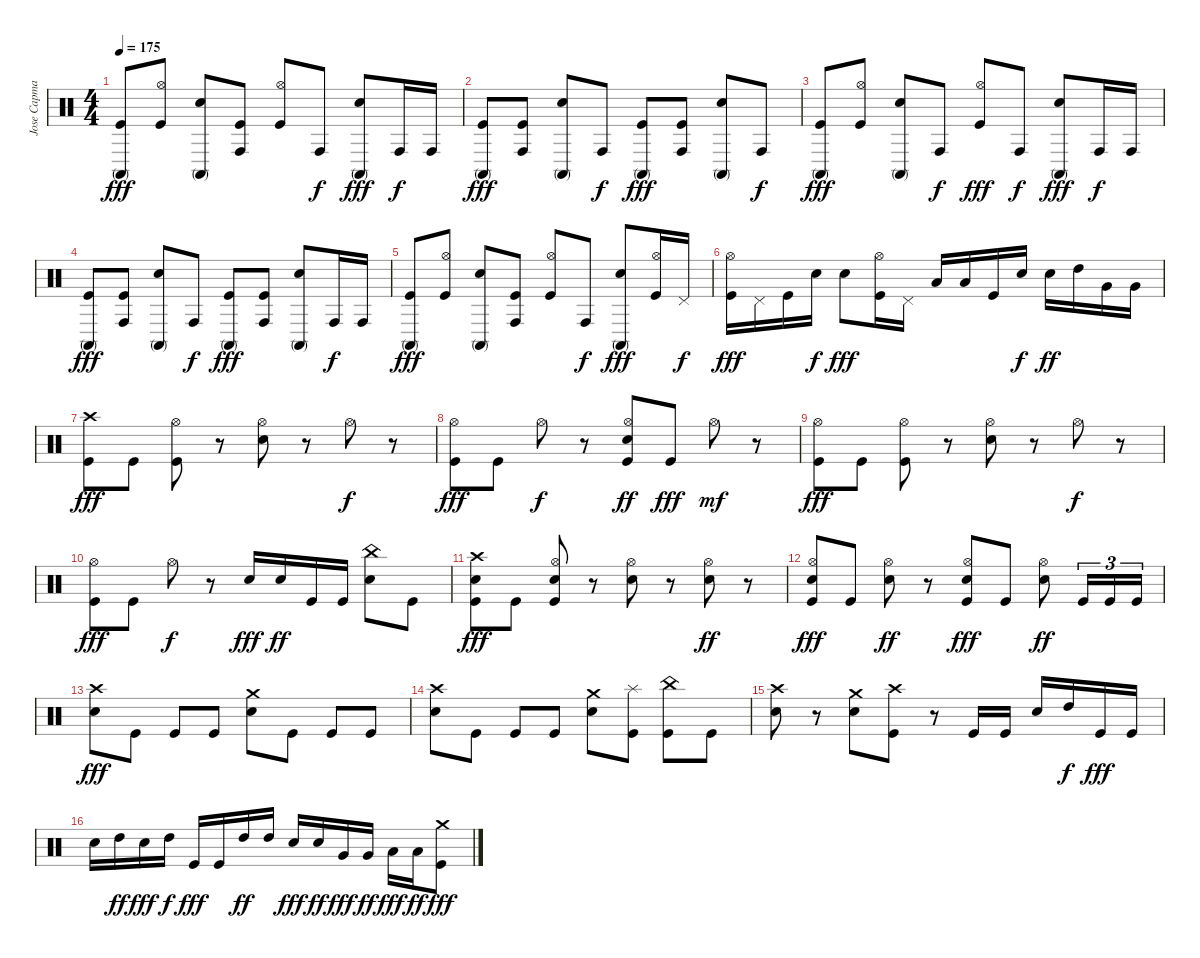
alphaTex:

\track ("Jose Capmany" "Jose Capma") {instrument percussion}
\staff {score}
\articulation defaults
\ts (4 4)
\tempo 175
\clef neutral
\ks c
("Conga high (mute)" "Kick (hit)").8{dy fff} ("Hi-Hat (open)" "Kick (hit)").8 ("Conga high (mute)" "Snare (hit) 2").8 ("Conga high (hit)" "Kick (hit)").8 ("Hi-Hat (open)" "Kick (hit)").8 "Conga high (hit)".8{dy f} ("Conga high (mute)" "Snare (hit) 2").8{dy fff} "Conga high (hit)".16{dy f} "Conga high (hit)".16 |
("Conga high (mute)" "Kick (hit)").8{dy fff} ("Conga high (hit)" "Kick (hit)").8 ("Conga high (mute)" "Snare (hit) 2").8 "Conga high (hit)".8{dy f} ("Conga high (mute)" "Kick (hit)").8{dy fff} ("Conga high (hit)" "Kick (hit)").8 ("Conga high (mute)" "Snare (hit) 2").8 "Conga high (hit)".8{dy f} |
("Conga high (mute)" "Kick (hit)").8{dy fff} ("Hi-Hat (open)" "Kick (hit)").8 ("Conga high (mute)" "Snare (hit) 2").8 "Conga high (hit)".8{dy f} ("Hi-Hat (open)" "Kick (hit)").8{dy fff} "Conga high (hit)".8{dy f} ("Conga high (mute)" "Snare (hit) 2").8{dy fff} "Conga high (hit)".16{dy f} "Conga high (hit)".16 |
("Conga high (mute)" "Kick (hit)").8{dy fff} ("Conga high (hit)" "Kick (hit)").8 ("Conga high (mute)" "Snare (hit) 2").8 "Conga high (hit)".8{dy f} ("Conga high (mute)" "Kick (hit)").8{dy fff} ("Conga high (hit)" "Kick (hit)").8 ("Conga high (mute)" "Snare (hit) 2").8 "Conga high (hit)".16{dy f} "Conga high (hit)".16 |
("Conga high (mute)" "Kick (hit)").8{dy fff} ("Hi-Hat (open)" "Kick (hit)").8 ("Conga high (mute)" "Snare (hit) 2").8 ("Conga high (hit)" "Kick (hit)").8 ("Hi-Hat (open)" "Kick (hit)").8 "Conga high (hit)".8{dy f} ("Conga high (mute)" "Snare (hit) 2").8{dy fff} ("Hi-Hat (open)" "Kick (hit)").16 "Pedal Hi-Hat (hit)".16{dy f} |
("Hi-Hat (open)" "Kick (hit)").16{dy fff} "Pedal Hi-Hat (hit)".16 "Kick (hit)".16 "Snare (hit) 2".16{dy f} "Snare (hit) 2".8{dy fff} ("Hi-Hat (open)" "Kick (hit)").16 "Pedal Hi-Hat (hit)".16 "Low Floor Tom (hit)".16 "Low Floor Tom (hit)".16 "Kick (hit)".16 "Snare (hit) 2".16{dy f} "Snare (hit) 2".16{dy ff} "High Tom (hit)".16 "Very Low Tom (hit)".16 "Very Low Tom (hit)".16 |
("Crash high (hit)" "Kick (hit)").8{dy fff} "Kick (hit)".8 ("Hi-Hat (open)" "Kick (hit)").8 r.8 ("Hi-Hat (open)" "Snare (hit) 2").8 r.8 "Hi-Hat (open)".8{dy f} r.8 |
("Hi-Hat (open)" "Kick (hit)").8{dy fff} "Kick (hit)".8 "Hi-Hat (open)".8{dy f} r.8 ("Hi-Hat (open)" "Snare (hit) 2" "Kick (hit)").8{dy ff} "Kick (hit)".8{dy fff} "Hi-Hat (open)".8{dy mf} r.8 |
("Hi-Hat (open)" "Kick (hit)").8{dy fff} "Kick (hit)".8 ("Hi-Hat (open)" "Kick (hit)").8 r.8 ("Hi-Hat (open)" "Snare (hit) 2").8 r.8 "Hi-Hat (open)".8{dy f} r.8 |
("Hi-Hat (open)" "Kick (hit)").8{dy fff} "Kick (hit)".8 "Hi-Hat (open)".8{dy f} r.8 "Snare (hit) 2".16{dy fff} "Snare (hit) 2".16{dy ff} "Kick (hit)".16 "Kick (hit)".16 ("China (hit)" "Snare (hit) 2").8 "Kick (hit)".8 |
("Crash high (hit)" "Snare (hit) 2" "Kick (hit)").8{dy fff} "Kick (hit)".8 ("Hi-Hat (open)" "Snare (hit) 2" "Kick (hit)").8 r.8 ("Hi-Hat (open)" "Snare (hit) 2").8 r.8 ("Hi-Hat (open)" "Snare (hit) 2").8{dy ff} r.8 |
("Hi-Hat (open)" "Snare (hit) 2" "Kick (hit)").8{dy fff} "Kick (hit)".8 ("Hi-Hat (open)" "Snare (hit) 2").8{dy ff} r.8 ("Hi-Hat (open)" "Snare (hit) 2" "Kick (hit)").8{dy fff} "Kick (hit)".8 ("Hi-Hat (open)" "Snare (hit) 2").8{dy ff} "Kick (hit)".16{tu (3 2)} "Kick (hit)".16{tu (3 2)} "Kick (hit)".16{tu (3 2)} |
("Crash high (hit)" "Snare (hit) 2").8{dy fff} "Kick (hit)".8 "Kick (hit)".8 "Kick (hit)".8 ("Crash medium (hit)" "Snare (hit) 2").8 "Kick (hit)".8 "Kick (hit)".8 "Kick (hit)".8 |
("Crash high (hit)" "Snare (hit) 2").8 "Kick (hit)".8 "Kick (hit)".8 "Kick (hit)".8 ("Crash medium (hit)" "Snare (hit) 2").8 ("Splash (hit)" "Kick (hit)").8 ("China (hit)" "Kick (hit)").8 "Kick (hit)".8 |
("Crash high (hit)" "Snare (hit) 2").8 r.8 ("Crash medium (hit)" "Snare (hit) 2").8 ("Crash high (hit)" "Kick (hit)").8 r.8 "Kick (hit)".16 "Kick (hit)".16 "Snare (hit) 2".16 "High Tom (hit)".16{dy f} "Kick (hit)".16{dy fff} "Kick (hit)".16 |
"Snare (hit) 2".16 "High Tom (hit)".16{dy ff} "Snare (hit) 2".16{dy fff} "High Tom (hit)".16{dy f} "Kick (hit)".16{dy fff} "Kick (hit)".16 "High Tom (hit)".16{dy ff} "High Tom (hit)".16 "Snare (hit) 2".16{dy fff} "Snare (hit) 2".16{dy ff} "Very Low Tom (hit)".16{dy fff} "Very Low Tom (hit)".16{dy ff} "Low Floor Tom (hit)".16{dy fff} "Low Floor Tom (hit)".16{dy ff} ("Crash medium (hit)" "Kick (hit)").8{dy fff}
